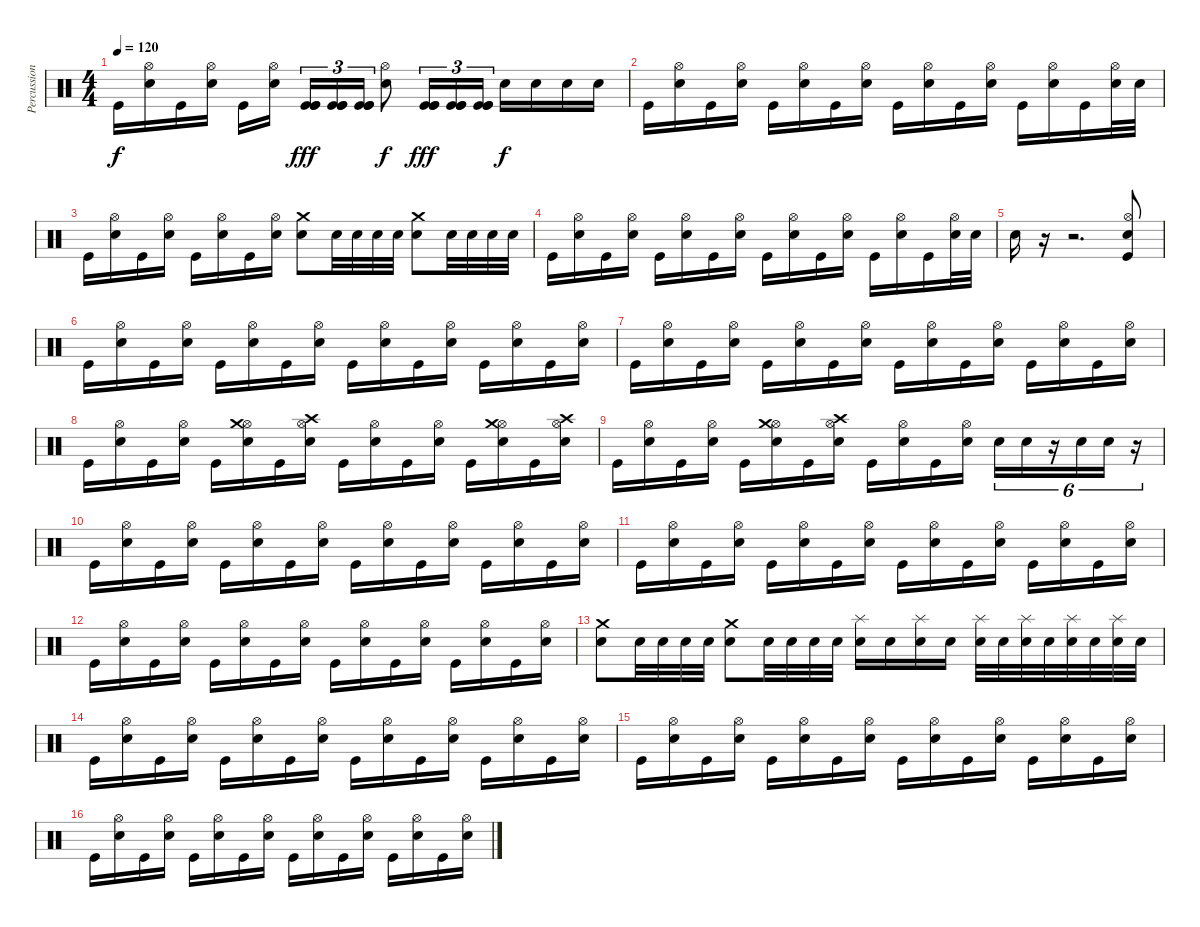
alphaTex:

\track ("Percussioni" "Percussion") {instrument percussion}
\staff {score}
\articulation defaults
\ts (4 4)
\tempo 120
\clef neutral
\ks c "Kick (hit)".16{dy f}
("Hi-Hat (open)" "Electric Snare (hit)").16 "Kick (hit)".16 ("Hi-Hat (open)" "Electric Snare (hit)").16 "Kick (hit)".16 ("Hi-Hat (open)" "Electric Snare (hit)").16 ("Kick (hit)" "Kick (hit)" "Kick (hit)").16{tu (3 2) dy fff} ("Kick (hit)" "Kick (hit)" "Kick (hit)").16{tu (3 2)} ("Kick (hit)" "Kick (hit)" "Kick (hit)").16{tu (3 2)} ("Hi-Hat (open)" "Electric Snare (hit)").8{dy f} ("Kick (hit)" "Kick (hit)" "Kick (hit)").16{tu (3 2) dy fff} ("Kick (hit)" "Kick (hit)" "Kick (hit)").16{tu (3 2)} ("Kick (hit)" "Kick (hit)" "Kick (hit)").16{tu (3 2)} "Electric Snare (hit)".16{dy f} "Electric Snare (hit)".16 "Electric Snare (hit)".16 "Electric Snare (hit)".16 |
"Kick (hit)".16 ("Hi-Hat (open)" "Electric Snare (hit)").16 "Kick (hit)".16 ("Hi-Hat (open)" "Electric Snare (hit)").16 "Kick (hit)".16 ("Hi-Hat (open)" "Electric Snare (hit)").16 "Kick (hit)".16 ("Hi-Hat (open)" "Electric Snare (hit)").16 "Kick (hit)".16 ("Hi-Hat (open)" "Electric Snare (hit)").16 "Kick (hit)".16 ("Hi-Hat (open)" "Electric Snare (hit)").16 "Kick (hit)".16 ("Hi-Hat (open)" "Electric Snare (hit)").16 "Kick (hit)".16 ("Hi-Hat (open)" "Electric Snare (hit)").32 "Electric Snare (hit)".32 |
"Kick (hit)".16 ("Hi-Hat (open)" "Electric Snare (hit)").16 "Kick (hit)".16 ("Hi-Hat (open)" "Electric Snare (hit)").16 "Kick (hit)".16 ("Hi-Hat (open)" "Electric Snare (hit)").16 "Kick (hit)".16 ("Hi-Hat (open)" "Electric Snare (hit)").16 ("Crash medium (hit)" "Electric Snare (hit)").8 "Electric Snare (hit)".32 "Electric Snare (hit)".32 "Electric Snare (hit)".32 "Electric Snare (hit)".32 ("Crash medium (hit)" "Electric Snare (hit)").8 "Electric Snare (hit)".32 "Electric Snare (hit)".32 "Electric Snare (hit)".32 "Electric Snare (hit)".32 |
"Kick (hit)".16 ("Hi-Hat (open)" "Electric Snare (hit)").16 "Kick (hit)".16 ("Hi-Hat (open)" "Electric Snare (hit)").16 "Kick (hit)".16 ("Hi-Hat (open)" "Electric Snare (hit)").16 "Kick (hit)".16 ("Hi-Hat (open)" "Electric Snare (hit)").16 "Kick (hit)".16 ("Hi-Hat (open)" "Electric Snare (hit)").16 "Kick (hit)".16 ("Hi-Hat (open)" "Electric Snare (hit)").16 "Kick (hit)".16 ("Hi-Hat (open)" "Electric Snare (hit)").16 "Kick (hit)".16 ("Hi-Hat (open)" "Electric Snare (hit)").32 "Electric Snare (hit)".32 |
"Electric Snare (hit)".16 r.16 r.2{d} ("Hi-Hat (open)" "Electric Snare (hit)" "Kick (hit)").8 |
"Kick (hit)".16 ("Hi-Hat (open)" "Electric Snare (hit)").16 "Kick (hit)".16 ("Hi-Hat (open)" "Electric Snare (hit)").16 "Kick (hit)".16 ("Hi-Hat (open)" "Electric Snare (hit)").16 "Kick (hit)".16 ("Hi-Hat (open)" "Electric Snare (hit)").16 "Kick (hit)".16 ("Hi-Hat (open)" "Electric Snare (hit)").16 "Kick (hit)".16 ("Hi-Hat (open)" "Electric Snare (hit)").16 "Kick (hit)".16 ("Hi-Hat (open)" "Electric Snare (hit)").16 "Kick (hit)".16 ("Hi-Hat (open)" "Electric Snare (hit)").16 |
"Kick (hit)".16 ("Hi-Hat (open)" "Electric Snare (hit)").16 "Kick (hit)".16 ("Hi-Hat (open)" "Electric Snare (hit)").16 "Kick (hit)".16 ("Hi-Hat (open)" "Electric Snare (hit)").16 "Kick (hit)".16 ("Hi-Hat (open)" "Electric Snare (hit)").16 "Kick (hit)".16 ("Hi-Hat (open)" "Electric Snare (hit)").16 "Kick (hit)".16 ("Hi-Hat (open)" "Electric Snare (hit)").16 "Kick (hit)".16 ("Hi-Hat (open)" "Electric Snare (hit)").16 "Kick (hit)".16 ("Hi-Hat (open)" "Electric Snare (hit)").16 |
"Kick (hit)".16 ("Hi-Hat (open)" "Electric Snare (hit)").16 "Kick (hit)".16 ("Hi-Hat (open)" "Electric Snare (hit)").16 "Kick (hit)".16 ("Hi-Hat (open)" "Crash medium (hit)" "Electric Snare (hit)").16 "Kick (hit)".16 ("Hi-Hat (open)" "Crash high (hit)" "Electric Snare (hit)").16 "Kick (hit)".16 ("Hi-Hat (open)" "Electric Snare (hit)").16 "Kick (hit)".16 ("Hi-Hat (open)" "Electric Snare (hit)").16 "Kick (hit)".16 ("Hi-Hat (open)" "Crash medium (hit)" "Electric Snare (hit)").16 "Kick (hit)".16 ("Hi-Hat (open)" "Crash high (hit)" "Electric Snare (hit)").16 |
"Kick (hit)".16 ("Hi-Hat (open)" "Electric Snare (hit)").16 "Kick (hit)".16 ("Hi-Hat (open)" "Electric Snare (hit)").16 "Kick (hit)".16 ("Hi-Hat (open)" "Crash medium (hit)" "Electric Snare (hit)").16 "Kick (hit)".16 ("Hi-Hat (open)" "Crash high (hit)" "Electric Snare (hit)").16 "Kick (hit)".16 ("Hi-Hat (open)" "Electric Snare (hit)").16 "Kick (hit)".16 ("Hi-Hat (open)" "Electric Snare (hit)").16 "Electric Snare (hit)".16{tu (6 4)} "Electric Snare (hit)".16{tu (6 4)} r.16{tu (6 4)} "Snare (hit) 2".16{tu (6 4)} "Snare (hit) 2".16{tu (6 4)} r.16{tu (6 4)} |
"Kick (hit)".16 ("Hi-Hat (open)" "Electric Snare (hit)").16 "Kick (hit)".16 ("Hi-Hat (open)" "Electric Snare (hit)").16 "Kick (hit)".16 ("Hi-Hat (open)" "Electric Snare (hit)").16 "Kick (hit)".16 ("Hi-Hat (open)" "Electric Snare (hit)").16 "Kick (hit)".16 ("Hi-Hat (open)" "Electric Snare (hit)").16 "Kick (hit)".16 ("Hi-Hat (open)" "Electric Snare (hit)").16 "Kick (hit)".16 ("Hi-Hat (open)" "Electric Snare (hit)").16 "Kick (hit)".16 ("Hi-Hat (open)" "Electric Snare (hit)").16 |
"Kick (hit)".16 ("Hi-Hat (open)" "Electric Snare (hit)").16 "Kick (hit)".16 ("Hi-Hat (open)" "Electric Snare (hit)").16 "Kick (hit)".16 ("Hi-Hat (open)" "Electric Snare (hit)").16 "Kick (hit)".16 ("Hi-Hat (open)" "Electric Snare (hit)").16 "Kick (hit)".16 ("Hi-Hat (open)" "Electric Snare (hit)").16 "Kick (hit)".16 ("Hi-Hat (open)" "Electric Snare (hit)").16 "Kick (hit)".16 ("Hi-Hat (open)" "Electric Snare (hit)").16 "Kick (hit)".16 ("Hi-Hat (open)" "Electric Snare (hit)").16 |
"Kick (hit)".16 ("Hi-Hat (open)" "Electric Snare (hit)").16 "Kick (hit)".16 ("Hi-Hat (open)" "Electric Snare (hit)").16 "Kick (hit)".16 ("Hi-Hat (open)" "Electric Snare (hit)").16 "Kick (hit)".16 ("Hi-Hat (open)" "Electric Snare (hit)").16 "Kick (hit)".16 ("Hi-Hat (open)" "Electric Snare (hit)").16 "Kick (hit)".16 ("Hi-Hat (open)" "Electric Snare (hit)").16 "Kick (hit)".16 ("Hi-Hat (open)" "Electric Snare (hit)").16 "Kick (hit)".16 ("Hi-Hat (open)" "Electric Snare (hit)").16 |
("Crash medium (hit)" "Electric Snare (hit)").8 "Electric Snare (hit)".32 "Electric Snare (hit)".32 "Electric Snare (hit)".32 "Electric Snare (hit)".32 ("Crash medium (hit)" "Electric Snare (hit)").8 "Electric Snare (hit)".32 "Electric Snare (hit)".32 "Electric Snare (hit)".32 "Electric Snare (hit)".32 ("Splash (hit)" "Electric Snare (hit)").16 "Electric Snare (hit)".16 ("Splash (hit)" "Electric Snare (hit)").16 "Electric Snare (hit)".16 ("Splash (hit)" "Electric Snare (hit)").32 "Electric Snare (hit)".32 ("Splash (hit)" "Electric Snare (hit)").32 "Electric Snare (hit)".32 ("Splash (hit)" "Electric Snare (hit)").32 "Electric Snare (hit)".32 ("Splash (hit)" "Electric Snare (hit)").32 "Electric Snare (hit)".32 |
"Kick (hit)".16 ("Hi-Hat (open)" "Electric Snare (hit)").16 "Kick (hit)".16 ("Hi-Hat (open)" "Electric Snare (hit)").16 "Kick (hit)".16 ("Hi-Hat (open)" "Electric Snare (hit)").16 "Kick (hit)".16 ("Hi-Hat (open)" "Electric Snare (hit)").16 "Kick (hit)".16 ("Hi-Hat (open)" "Electric Snare (hit)").16 "Kick (hit)".16 ("Hi-Hat (open)" "Electric Snare (hit)").16 "Kick (hit)".16 ("Hi-Hat (open)" "Electric Snare (hit)").16 "Kick (hit)".16 ("Hi-Hat (open)" "Electric Snare (hit)").16 |
"Kick (hit)".16 ("Hi-Hat (open)" "Electric Snare (hit)").16 "Kick (hit)".16 ("Hi-Hat (open)" "Electric Snare (hit)").16 "Kick (hit)".16 ("Hi-Hat (open)" "Electric Snare (hit)").16 "Kick (hit)".16 ("Hi-Hat (open)" "Electric Snare (hit)").16 "Kick (hit)".16 ("Hi-Hat (open)" "Electric Snare (hit)").16 "Kick (hit)".16 ("Hi-Hat (open)" "Electric Snare (hit)").16 "Kick (hit)".16 ("Hi-Hat (open)" "Electric Snare (hit)").16 "Kick (hit)".16 ("Hi-Hat (open)" "Electric Snare (hit)").16 |
"Kick (hit)".16 ("Hi-Hat (open)" "Electric Snare (hit)").16 "Kick (hit)".16 ("Hi-Hat (open)" "Electric Snare (hit)").16 "Kick (hit)".16 ("Hi-Hat (open)" "Electric Snare (hit)").16 "Kick (hit)".16 ("Hi-Hat (open)" "Electric Snare (hit)").16 "Kick (hit)".16 ("Hi-Hat (open)" "Electric Snare (hit)").16 "Kick (hit)".16 ("Hi-Hat (open)" "Electric Snare (hit)").16 "Kick (hit)".16 ("Hi-Hat (open)" "Electric Snare (hit)").16 "Kick (hit)".16 ("Hi-Hat (open)" "Electric Snare (hit)").16
